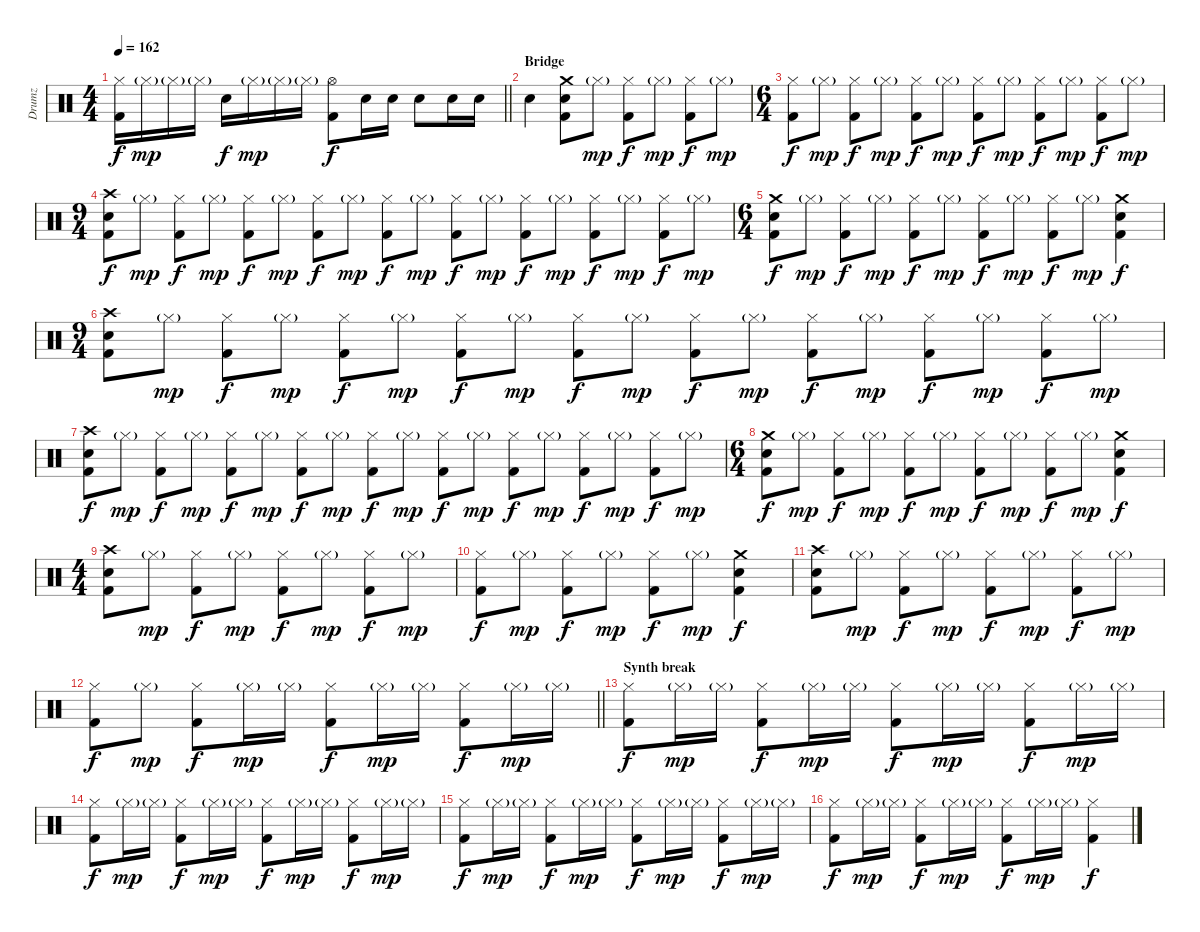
\track ("Drumz" "Drumz") {instrument percussion}
\staff {score}
\articulation defaults
\ts (4 4)
\tempo 162
\clef neutral
\barLineRight lightlight
\ks c
("Hi-Hat (closed)" "Kick (hit) 2").16{dy f} "Hi-Hat (closed)"{g}.16{dy mp} "Hi-Hat (closed)"{g}.16 "Hi-Hat (closed)"{g}.16 "Electric Snare (hit)".16{dy f} "Hi-Hat (closed)"{g}.16{dy mp} "Hi-Hat (closed)"{g}.16 "Hi-Hat (closed)"{g}.16 ("Hi-Hat (open)" "Kick (hit) 2").8{dy f} "Electric Snare (hit)".16 "Electric Snare (hit)".16 "Electric Snare (hit)".8 "Electric Snare (hit)".16 "Electric Snare (hit)".16 |
\section ("" "Bridge")
"Electric Snare (hit)".4 ("Crash medium (hit)" "Electric Snare (hit)" "Kick (hit) 2").8 "Hi-Hat (closed)"{g}.8{dy mp} ("Hi-Hat (closed)" "Kick (hit) 2").8{dy f} "Hi-Hat (closed)"{g}.8{dy mp} ("Hi-Hat (closed)" "Kick (hit) 2").8{dy f} "Hi-Hat (closed)"{g}.8{dy mp} |
\ts (6 4)
("Hi-Hat (closed)" "Kick (hit) 2").8{dy f} "Hi-Hat (closed)"{g}.8{dy mp} ("Hi-Hat (closed)" "Kick (hit) 2").8{dy f} "Hi-Hat (closed)"{g}.8{dy mp} ("Hi-Hat (closed)" "Kick (hit) 2").8{dy f} "Hi-Hat (closed)"{g}.8{dy mp} ("Hi-Hat (closed)" "Kick (hit) 2").8{dy f} "Hi-Hat (closed)"{g}.8{dy mp} ("Hi-Hat (closed)" "Kick (hit) 2").8{dy f} "Hi-Hat (closed)"{g}.8{dy mp} ("Hi-Hat (closed)" "Kick (hit) 2").8{dy f} "Hi-Hat (closed)"{g}.8{dy mp} |
\ts (9 4)
("Crash high (hit)" "Electric Snare (hit)" "Kick (hit) 2").8{dy f} "Hi-Hat (closed)"{g}.8{dy mp} ("Hi-Hat (closed)" "Kick (hit) 2").8{dy f} "Hi-Hat (closed)"{g}.8{dy mp} ("Hi-Hat (closed)" "Kick (hit) 2").8{dy f} "Hi-Hat (closed)"{g}.8{dy mp} ("Hi-Hat (closed)" "Kick (hit) 2").8{dy f} "Hi-Hat (closed)"{g}.8{dy mp} ("Hi-Hat (closed)" "Kick (hit) 2").8{dy f} "Hi-Hat (closed)"{g}.8{dy mp} ("Hi-Hat (closed)" "Kick (hit) 2").8{dy f} "Hi-Hat (closed)"{g}.8{dy mp} ("Hi-Hat (closed)" "Kick (hit) 2").8{dy f} "Hi-Hat (closed)"{g}.8{dy mp} ("Hi-Hat (closed)" "Kick (hit) 2").8{dy f} "Hi-Hat (closed)"{g}.8{dy mp} ("Hi-Hat (closed)" "Kick (hit) 2").8{dy f} "Hi-Hat (closed)"{g}.8{dy mp} |
\ts (6 4)
("Crash medium (hit)" "Electric Snare (hit)" "Kick (hit) 2").8{dy f} "Hi-Hat (closed)"{g}.8{dy mp} ("Hi-Hat (closed)" "Kick (hit) 2").8{dy f} "Hi-Hat (closed)"{g}.8{dy mp} ("Hi-Hat (closed)" "Kick (hit) 2").8{dy f} "Hi-Hat (closed)"{g}.8{dy mp} ("Hi-Hat (closed)" "Kick (hit) 2").8{dy f} "Hi-Hat (closed)"{g}.8{dy mp} ("Hi-Hat (closed)" "Kick (hit) 2").8{dy f} "Hi-Hat (closed)"{g}.8{dy mp} ("Crash medium (hit)" "Electric Snare (hit)" "Kick (hit) 2").4{dy f} |
\ts (9 4)
("Crash high (hit)" "Electric Snare (hit)" "Kick (hit) 2").8 "Hi-Hat (closed)"{g}.8{dy mp} ("Hi-Hat (closed)" "Kick (hit) 2").8{dy f} "Hi-Hat (closed)"{g}.8{dy mp} ("Hi-Hat (closed)" "Kick (hit) 2").8{dy f} "Hi-Hat (closed)"{g}.8{dy mp} ("Hi-Hat (closed)" "Kick (hit) 2").8{dy f} "Hi-Hat (closed)"{g}.8{dy mp} ("Hi-Hat (closed)" "Kick (hit) 2").8{dy f} "Hi-Hat (closed)"{g}.8{dy mp} ("Hi-Hat (closed)" "Kick (hit) 2").8{dy f} "Hi-Hat (closed)"{g}.8{dy mp} ("Hi-Hat (closed)" "Kick (hit) 2").8{dy f} "Hi-Hat (closed)"{g}.8{dy mp} ("Hi-Hat (closed)" "Kick (hit) 2").8{dy f} "Hi-Hat (closed)"{g}.8{dy mp} ("Hi-Hat (closed)" "Kick (hit) 2").8{dy f} "Hi-Hat (closed)"{g}.8{dy mp} |
("Crash high (hit)" "Electric Snare (hit)" "Kick (hit) 2").8{dy f} "Hi-Hat (closed)"{g}.8{dy mp} ("Hi-Hat (closed)" "Kick (hit) 2").8{dy f} "Hi-Hat (closed)"{g}.8{dy mp} ("Hi-Hat (closed)" "Kick (hit) 2").8{dy f} "Hi-Hat (closed)"{g}.8{dy mp} ("Hi-Hat (closed)" "Kick (hit) 2").8{dy f} "Hi-Hat (closed)"{g}.8{dy mp} ("Hi-Hat (closed)" "Kick (hit) 2").8{dy f} "Hi-Hat (closed)"{g}.8{dy mp} ("Hi-Hat (closed)" "Kick (hit) 2").8{dy f} "Hi-Hat (closed)"{g}.8{dy mp} ("Hi-Hat (closed)" "Kick (hit) 2").8{dy f} "Hi-Hat (closed)"{g}.8{dy mp} ("Hi-Hat (closed)" "Kick (hit) 2").8{dy f} "Hi-Hat (closed)"{g}.8{dy mp} ("Hi-Hat (closed)" "Kick (hit) 2").8{dy f} "Hi-Hat (closed)"{g}.8{dy mp} |
\ts (6 4)
("Crash medium (hit)" "Electric Snare (hit)" "Kick (hit) 2").8{dy f} "Hi-Hat (closed)"{g}.8{dy mp} ("Hi-Hat (closed)" "Kick (hit) 2").8{dy f} "Hi-Hat (closed)"{g}.8{dy mp} ("Hi-Hat (closed)" "Kick (hit) 2").8{dy f} "Hi-Hat (closed)"{g}.8{dy mp} ("Hi-Hat (closed)" "Kick (hit) 2").8{dy f} "Hi-Hat (closed)"{g}.8{dy mp} ("Hi-Hat (closed)" "Kick (hit) 2").8{dy f} "Hi-Hat (closed)"{g}.8{dy mp} ("Crash medium (hit)" "Electric Snare (hit)" "Kick (hit) 2").4{dy f} |
\ts (4 4)
("Crash high (hit)" "Electric Snare (hit)" "Kick (hit) 2").8 "Hi-Hat (closed)"{g}.8{dy mp} ("Hi-Hat (closed)" "Kick (hit) 2").8{dy f} "Hi-Hat (closed)"{g}.8{dy mp} ("Hi-Hat (closed)" "Kick (hit) 2").8{dy f} "Hi-Hat (closed)"{g}.8{dy mp} ("Hi-Hat (closed)" "Kick (hit) 2").8{dy f} "Hi-Hat (closed)"{g}.8{dy mp} |
("Hi-Hat (closed)" "Kick (hit) 2").8{dy f} "Hi-Hat (closed)"{g}.8{dy mp} ("Hi-Hat (closed)" "Kick (hit) 2").8{dy f} "Hi-Hat (closed)"{g}.8{dy mp} ("Hi-Hat (closed)" "Kick (hit) 2").8{dy f} "Hi-Hat (closed)"{g}.8{dy mp} ("Crash medium (hit)" "Electric Snare (hit)" "Kick (hit) 2").4{dy f} |
("Crash high (hit)" "Electric Snare (hit)" "Kick (hit) 2").8 "Hi-Hat (closed)"{g}.8{dy mp} ("Hi-Hat (closed)" "Kick (hit) 2").8{dy f} "Hi-Hat (closed)"{g}.8{dy mp} ("Hi-Hat (closed)" "Kick (hit) 2").8{dy f} "Hi-Hat (closed)"{g}.8{dy mp} ("Hi-Hat (closed)" "Kick (hit) 2").8{dy f} "Hi-Hat (closed)"{g}.8{dy mp} |
\barLineRight lightlight
("Hi-Hat (closed)" "Kick (hit) 2").8{dy f} "Hi-Hat (closed)"{g}.8{dy mp} ("Hi-Hat (closed)" "Kick (hit) 2").8{dy f} "Hi-Hat (closed)"{g}.16{dy mp} "Hi-Hat (closed)"{g}.16 ("Hi-Hat (closed)" "Kick (hit) 2").8{dy f} "Hi-Hat (closed)"{g}.16{dy mp} "Hi-Hat (closed)"{g}.16 ("Hi-Hat (closed)" "Kick (hit) 2").8{dy f} "Hi-Hat (closed)"{g}.16{dy mp} "Hi-Hat (closed)"{g}.16 |
\section ("" "Synth break")
("Hi-Hat (closed)" "Kick (hit) 2").8{dy f} "Hi-Hat (closed)"{g}.16{dy mp} "Hi-Hat (closed)"{g}.16 ("Hi-Hat (closed)" "Kick (hit) 2").8{dy f} "Hi-Hat (closed)"{g}.16{dy mp} "Hi-Hat (closed)"{g}.16 ("Hi-Hat (closed)" "Kick (hit) 2").8{dy f} "Hi-Hat (closed)"{g}.16{dy mp} "Hi-Hat (closed)"{g}.16 ("Hi-Hat (closed)" "Kick (hit) 2").8{dy f} "Hi-Hat (closed)"{g}.16{dy mp} "Hi-Hat (closed)"{g}.16 |
("Hi-Hat (closed)" "Kick (hit) 2").8{dy f} "Hi-Hat (closed)"{g}.16{dy mp} "Hi-Hat (closed)"{g}.16 ("Hi-Hat (closed)" "Kick (hit) 2").8{dy f} "Hi-Hat (closed)"{g}.16{dy mp} "Hi-Hat (closed)"{g}.16 ("Hi-Hat (closed)" "Kick (hit) 2").8{dy f} "Hi-Hat (closed)"{g}.16{dy mp} "Hi-Hat (closed)"{g}.16 ("Hi-Hat (closed)" "Kick (hit) 2").8{dy f} "Hi-Hat (closed)"{g}.16{dy mp} "Hi-Hat (closed)"{g}.16 |
("Hi-Hat (closed)" "Kick (hit) 2").8{dy f} "Hi-Hat (closed)"{g}.16{dy mp} "Hi-Hat (closed)"{g}.16 ("Hi-Hat (closed)" "Kick (hit) 2").8{dy f} "Hi-Hat (closed)"{g}.16{dy mp} "Hi-Hat (closed)"{g}.16 ("Hi-Hat (closed)" "Kick (hit) 2").8{dy f} "Hi-Hat (closed)"{g}.16{dy mp} "Hi-Hat (closed)"{g}.16 ("Hi-Hat (closed)" "Kick (hit) 2").8{dy f} "Hi-Hat (closed)"{g}.16{dy mp} "Hi-Hat (closed)"{g}.16 |
("Hi-Hat (closed)" "Kick (hit) 2").8{dy f} "Hi-Hat (closed)"{g}.16{dy mp} "Hi-Hat (closed)"{g}.16 ("Hi-Hat (closed)" "Kick (hit) 2").8{dy f} "Hi-Hat (closed)"{g}.16{dy mp} "Hi-Hat (closed)"{g}.16 ("Hi-Hat (closed)" "Kick (hit) 2").8{dy f} "Hi-Hat (closed)"{g}.16{dy mp} "Hi-Hat (closed)"{g}.16 ("Hi-Hat (closed)" "Kick (hit) 2").4{dy f}
